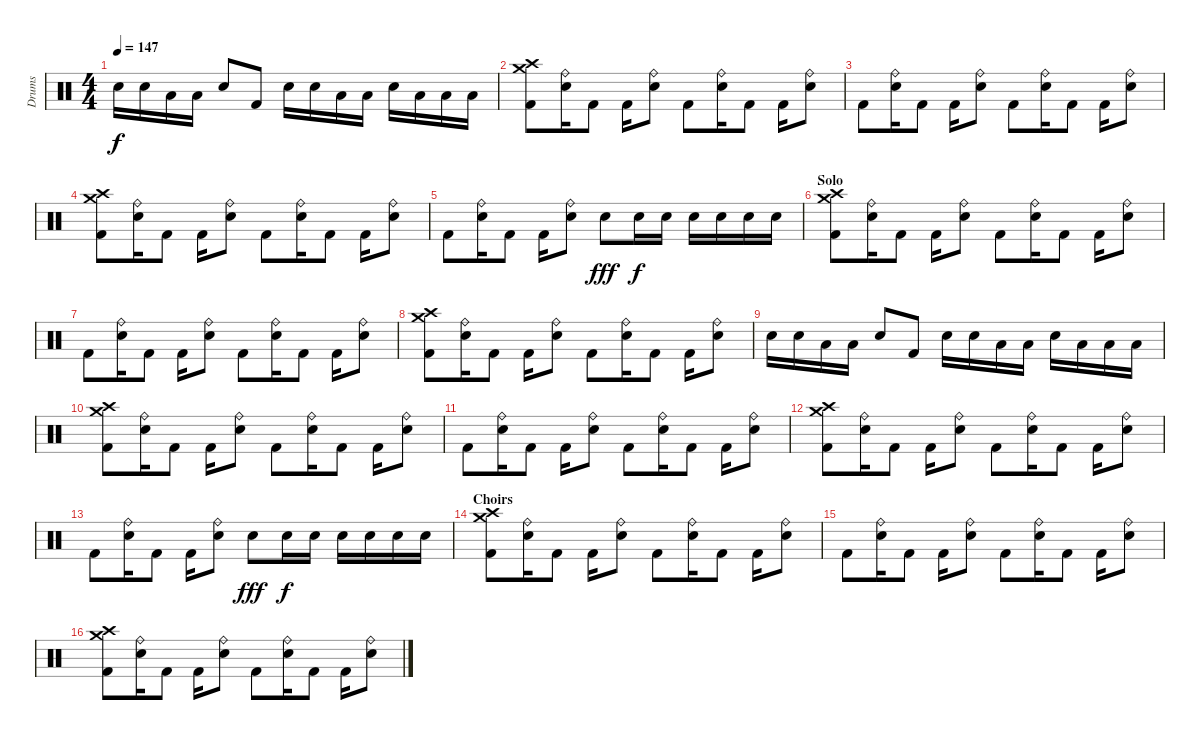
\track ("Drums" "Drums") {instrument percussion}
\staff {score}
\articulation defaults
\ts (4 4)
\tempo 147
\clef neutral
\ks c "Electric Snare (hit)".16{dy f} "Electric Snare (hit)".16 "Low Tom (hit)".16 "Low Tom (hit)".16 "Electric Snare (hit)".8 "Kick (hit) 2".8 "Electric Snare (hit)".16 "Electric Snare (hit)".16 "Low Tom (hit)".16 "Low Tom (hit)".16 "Electric Snare (hit)".16 "Low Tom (hit)".16 "Low Tom (hit)".16 "Low Tom (hit)".16
|
("Crash high (hit)" "Crash medium (hit)" "Kick (hit) 2").8 ("Ride (bell)" "Electric Snare (hit)").16 "Kick (hit) 2".8 "Kick (hit) 2".16 ("Ride (bell)" "Electric Snare (hit)").8 "Kick (hit) 2".8 ("Ride (bell)" "Electric Snare (hit)").16 "Kick (hit) 2".8 "Kick (hit) 2".16 ("Ride (bell)" "Electric Snare (hit)").8 |
"Kick (hit) 2".8 ("Ride (bell)" "Electric Snare (hit)").16 "Kick (hit) 2".8 "Kick (hit) 2".16 ("Ride (bell)" "Electric Snare (hit)").8 "Kick (hit) 2".8 ("Ride (bell)" "Electric Snare (hit)").16 "Kick (hit) 2".8 "Kick (hit) 2".16 ("Ride (bell)" "Electric Snare (hit)").8 |
("Crash high (hit)" "Crash medium (hit)" "Kick (hit) 2").8 ("Ride (bell)" "Electric Snare (hit)").16 "Kick (hit) 2".8 "Kick (hit) 2".16 ("Ride (bell)" "Electric Snare (hit)").8 "Kick (hit) 2".8 ("Ride (bell)" "Electric Snare (hit)").16 "Kick (hit) 2".8 "Kick (hit) 2".16 ("Ride (bell)" "Electric Snare (hit)").8 |
"Kick (hit) 2".8 ("Ride (bell)" "Electric Snare (hit)").16 "Kick (hit) 2".8 "Kick (hit) 2".16 ("Ride (bell)" "Electric Snare (hit)").8 "Electric Snare (hit)".8{dy fff} "Electric Snare (hit)".16{dy f} "Electric Snare (hit)".16 "Electric Snare (hit)".16 "Electric Snare (hit)".16 "Electric Snare (hit)".16 "Electric Snare (hit)".16 |
\section ("" "Solo")
("Crash high (hit)" "Crash medium (hit)" "Kick (hit) 2").8 ("Ride (bell)" "Electric Snare (hit)").16 "Kick (hit) 2".8 "Kick (hit) 2".16 ("Ride (bell)" "Electric Snare (hit)").8 "Kick (hit) 2".8 ("Ride (bell)" "Electric Snare (hit)").16 "Kick (hit) 2".8 "Kick (hit) 2".16 ("Ride (bell)" "Electric Snare (hit)").8 |
"Kick (hit) 2".8 ("Ride (bell)" "Electric Snare (hit)").16 "Kick (hit) 2".8 "Kick (hit) 2".16 ("Ride (bell)" "Electric Snare (hit)").8 "Kick (hit) 2".8 ("Ride (bell)" "Electric Snare (hit)").16 "Kick (hit) 2".8 "Kick (hit) 2".16 ("Ride (bell)" "Electric Snare (hit)").8 |
("Crash high (hit)" "Crash medium (hit)" "Kick (hit) 2").8 ("Ride (bell)" "Electric Snare (hit)").16 "Kick (hit) 2".8 "Kick (hit) 2".16 ("Ride (bell)" "Electric Snare (hit)").8 "Kick (hit) 2".8 ("Ride (bell)" "Electric Snare (hit)").16 "Kick (hit) 2".8 "Kick (hit) 2".16 ("Ride (bell)" "Electric Snare (hit)").8 |
"Electric Snare (hit)".16 "Electric Snare (hit)".16 "Low Tom (hit)".16 "Low Tom (hit)".16 "Electric Snare (hit)".8 "Kick (hit) 2".8 "Electric Snare (hit)".16 "Electric Snare (hit)".16 "Low Tom (hit)".16 "Low Tom (hit)".16 "Electric Snare (hit)".16 "Low Tom (hit)".16 "Low Tom (hit)".16 "Low Tom (hit)".16 |
("Crash high (hit)" "Crash medium (hit)" "Kick (hit) 2").8 ("Ride (bell)" "Electric Snare (hit)").16 "Kick (hit) 2".8 "Kick (hit) 2".16 ("Ride (bell)" "Electric Snare (hit)").8 "Kick (hit) 2".8 ("Ride (bell)" "Electric Snare (hit)").16 "Kick (hit) 2".8 "Kick (hit) 2".16 ("Ride (bell)" "Electric Snare (hit)").8 |
"Kick (hit) 2".8 ("Ride (bell)" "Electric Snare (hit)").16 "Kick (hit) 2".8 "Kick (hit) 2".16 ("Ride (bell)" "Electric Snare (hit)").8 "Kick (hit) 2".8 ("Ride (bell)" "Electric Snare (hit)").16 "Kick (hit) 2".8 "Kick (hit) 2".16 ("Ride (bell)" "Electric Snare (hit)").8 |
("Crash high (hit)" "Crash medium (hit)" "Kick (hit) 2").8 ("Ride (bell)" "Electric Snare (hit)").16 "Kick (hit) 2".8 "Kick (hit) 2".16 ("Ride (bell)" "Electric Snare (hit)").8 "Kick (hit) 2".8 ("Ride (bell)" "Electric Snare (hit)").16 "Kick (hit) 2".8 "Kick (hit) 2".16 ("Ride (bell)" "Electric Snare (hit)").8 |
"Kick (hit) 2".8 ("Ride (bell)" "Electric Snare (hit)").16 "Kick (hit) 2".8 "Kick (hit) 2".16 ("Ride (bell)" "Electric Snare (hit)").8 "Electric Snare (hit)".8{dy fff} "Electric Snare (hit)".16{dy f} "Electric Snare (hit)".16 "Electric Snare (hit)".16 "Electric Snare (hit)".16 "Electric Snare (hit)".16 "Electric Snare (hit)".16 |
\section ("" "Choirs")
("Crash high (hit)" "Crash medium (hit)" "Kick (hit) 2").8 ("Ride (bell)" "Electric Snare (hit)").16 "Kick (hit) 2".8 "Kick (hit) 2".16 ("Ride (bell)" "Electric Snare (hit)").8 "Kick (hit) 2".8 ("Ride (bell)" "Electric Snare (hit)").16 "Kick (hit) 2".8 "Kick (hit) 2".16 ("Ride (bell)" "Electric Snare (hit)").8 |
"Kick (hit) 2".8 ("Ride (bell)" "Electric Snare (hit)").16 "Kick (hit) 2".8 "Kick (hit) 2".16 ("Ride (bell)" "Electric Snare (hit)").8 "Kick (hit) 2".8 ("Ride (bell)" "Electric Snare (hit)").16 "Kick (hit) 2".8 "Kick (hit) 2".16 ("Ride (bell)" "Electric Snare (hit)").8 |
("Crash high (hit)" "Crash medium (hit)" "Kick (hit) 2").8 ("Ride (bell)" "Electric Snare (hit)").16 "Kick (hit) 2".8 "Kick (hit) 2".16 ("Ride (bell)" "Electric Snare (hit)").8 "Kick (hit) 2".8 ("Ride (bell)" "Electric Snare (hit)").16 "Kick (hit) 2".8 "Kick (hit) 2".16 ("Ride (bell)" "Electric Snare (hit)").8
